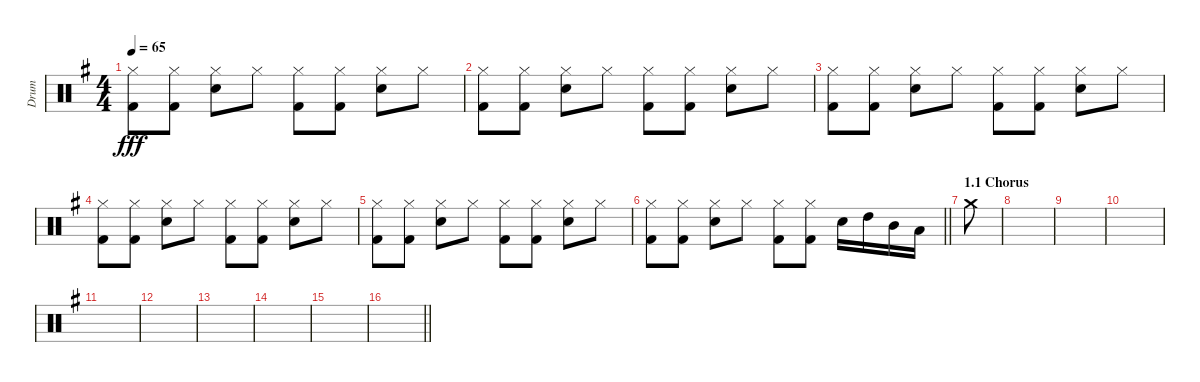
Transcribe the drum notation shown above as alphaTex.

\track ("Drum" "Drum") {instrument percussion}
\staff {score}
\articulation defaults
\ts (4 4)
\tempo 65
\clef neutral
\ks eminor
("Hi-Hat (closed)" "Kick (hit) 2").8{dy fff} ("Kick (hit) 2" "Hi-Hat (closed)").8 ("Electric Snare (hit)" "Hi-Hat (closed)").8 "Hi-Hat (closed)".8 ("Kick (hit) 2" "Hi-Hat (closed)").8 ("Kick (hit) 2" "Hi-Hat (closed)").8 ("Electric Snare (hit)" "Hi-Hat (closed)").8 "Hi-Hat (closed)".8 |
("Hi-Hat (closed)" "Kick (hit) 2").8 ("Kick (hit) 2" "Hi-Hat (closed)").8 ("Electric Snare (hit)" "Hi-Hat (closed)").8 "Hi-Hat (closed)".8 ("Kick (hit) 2" "Hi-Hat (closed)").8 ("Kick (hit) 2" "Hi-Hat (closed)").8 ("Electric Snare (hit)" "Hi-Hat (closed)").8 "Hi-Hat (closed)".8 |
("Hi-Hat (closed)" "Kick (hit) 2").8 ("Kick (hit) 2" "Hi-Hat (closed)").8 ("Electric Snare (hit)" "Hi-Hat (closed)").8 "Hi-Hat (closed)".8 ("Kick (hit) 2" "Hi-Hat (closed)").8 ("Kick (hit) 2" "Hi-Hat (closed)").8 ("Electric Snare (hit)" "Hi-Hat (closed)").8 "Hi-Hat (closed)".8 |
("Hi-Hat (closed)" "Kick (hit) 2").8 ("Kick (hit) 2" "Hi-Hat (closed)").8 ("Electric Snare (hit)" "Hi-Hat (closed)").8 "Hi-Hat (closed)".8 ("Kick (hit) 2" "Hi-Hat (closed)").8 ("Kick (hit) 2" "Hi-Hat (closed)").8 ("Electric Snare (hit)" "Hi-Hat (closed)").8 "Hi-Hat (closed)".8 |
("Hi-Hat (closed)" "Kick (hit) 2").8 ("Kick (hit) 2" "Hi-Hat (closed)").8 ("Electric Snare (hit)" "Hi-Hat (closed)").8 "Hi-Hat (closed)".8 ("Kick (hit) 2" "Hi-Hat (closed)").8 ("Kick (hit) 2" "Hi-Hat (closed)").8 ("Electric Snare (hit)" "Hi-Hat (closed)").8 "Hi-Hat (closed)".8 |
\barLineRight lightlight
("Hi-Hat (closed)" "Kick (hit) 2").8 ("Kick (hit) 2" "Hi-Hat (closed)").8 ("Electric Snare (hit)" "Hi-Hat (closed)").8 "Hi-Hat (closed)".8 ("Hi-Hat (closed)" "Kick (hit) 2").8 ("Hi-Hat (closed)" "Kick (hit) 2").8 "Electric Snare (hit)".16 "High Tom (hit)".16 "Mid Tom (hit)".16 "Low Tom (hit)".16 |
\section ("" "1.1 Chorus ")
"Crash medium (hit)".8 |
|
|
|
|
|
|
|
|
\barLineRight lightlight
